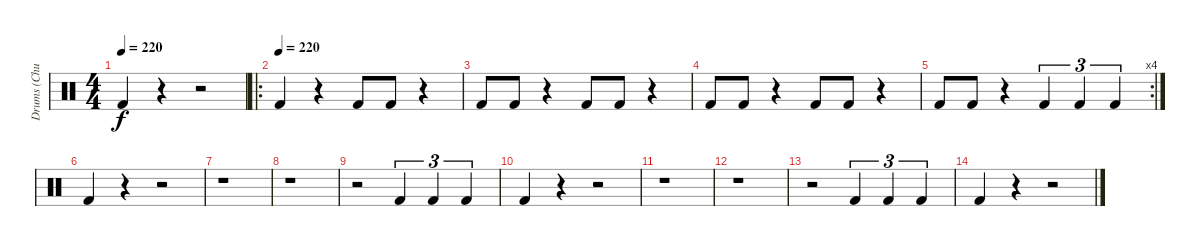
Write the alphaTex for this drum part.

\track ("Drums (Chuck Behler)" "Drums (Chu") {instrument percussion}
\staff {score}
\articulation defaults
\ts (4 4)
\tempo 220
\clef neutral
\ks c "Kick (hit) 2".4{dy f}
r.4 r.2 |
\ro
\tempo (220)
"Kick (hit) 2".4 r.4 "Kick (hit) 2".8 "Kick (hit) 2".8 r.4 |
"Kick (hit) 2".8 "Kick (hit) 2".8 r.4 "Kick (hit) 2".8 "Kick (hit) 2".8 r.4 |
"Kick (hit) 2".8 "Kick (hit) 2".8 r.4 "Kick (hit) 2".8 "Kick (hit) 2".8 r.4 |
\rc 4 "Kick (hit) 2".8 "Kick (hit) 2".8
r.4 "Kick (hit) 2".4{tu (3 2)} "Kick (hit) 2".4{tu (3 2)} "Kick (hit) 2".4{tu (3 2)} |
"Kick (hit) 2".4 r.4 r.2 |
r.1 |
r.1 |
r.2 "Kick (hit) 2".4{tu (3 2)} "Kick (hit) 2".4{tu (3 2)} "Kick (hit) 2".4{tu (3 2)} |
"Kick (hit) 2".4 r.4 r.2 |
r.1 |
r.1 |
r.2 "Kick (hit) 2".4{tu (3 2)} "Kick (hit) 2".4{tu (3 2)} "Kick (hit) 2".4{tu (3 2)} |
"Kick (hit) 2".4 r.4 r.2
